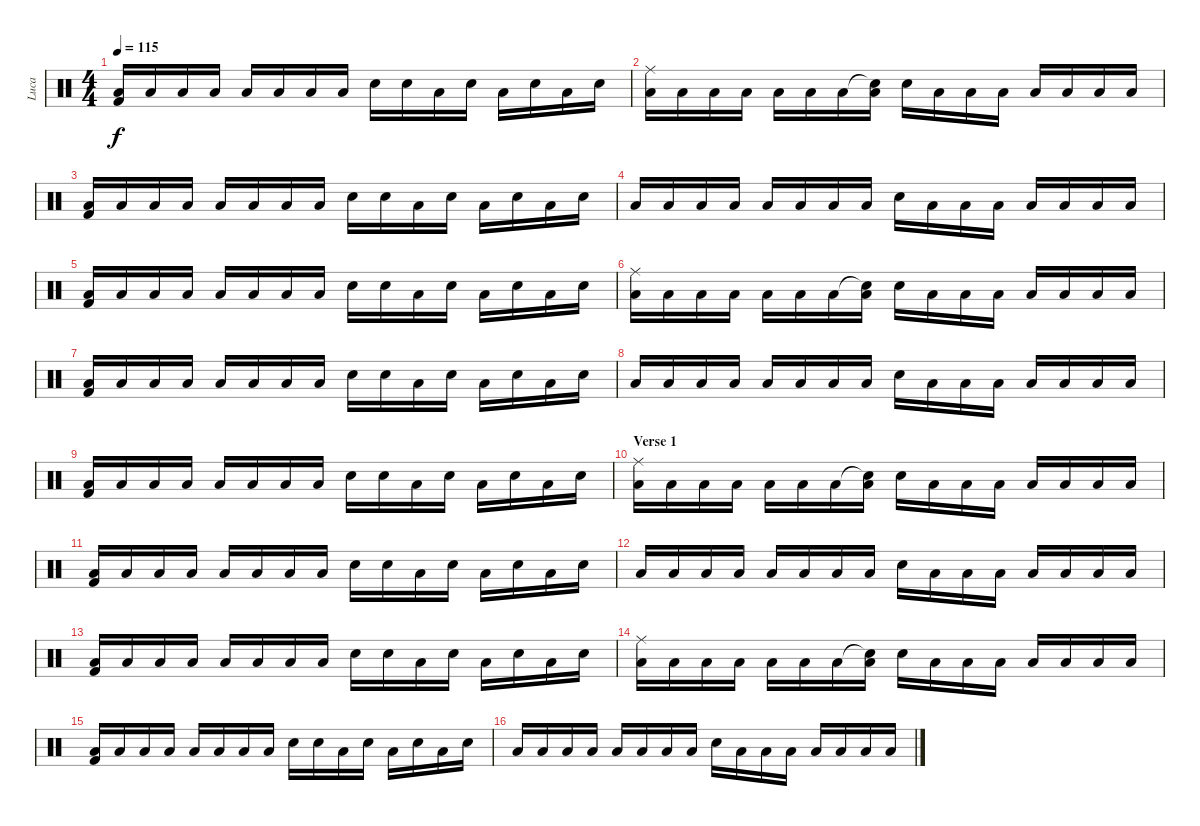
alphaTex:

\track ("Luca" "Luca") {instrument percussion}
\staff {score}
\articulation defaults
\ts (4 4)
\tempo 115
\clef neutral
\ks c
("Low Floor Tom (hit)" "Kick (hit) 2").16{dy f} "Low Floor Tom (hit)".16 "Low Floor Tom (hit)".16 "Low Floor Tom (hit)".16 "Low Floor Tom (hit)".16 "Low Floor Tom (hit)".16 "Low Floor Tom (hit)".16 "Low Floor Tom (hit)".16 "Snare (hit) 2".16 "Snare (hit) 2".16 "Low Floor Tom (hit)".16 "Snare (hit) 2".16 "Low Floor Tom (hit)".16 "Snare (hit) 2".16 "Low Floor Tom (hit)".16 "Snare (hit) 2".16 |
("Ride (middle)" "Low Floor Tom (hit)").16 "Low Floor Tom (hit)".16 "Low Floor Tom (hit)".16 "Low Floor Tom (hit)".16 "Low Floor Tom (hit)".16 "Low Floor Tom (hit)".16 "Low Floor Tom (hit)".16 ("Snare (hit)"{t} "Low Floor Tom (hit)").16 "Snare (hit) 2".16 "Low Floor Tom (hit)".16 "Low Floor Tom (hit)".16 "Low Floor Tom (hit)".16 "Low Floor Tom (hit)".16 "Low Floor Tom (hit)".16 "Low Floor Tom (hit)".16 "Low Floor Tom (hit)".16 |
("Low Floor Tom (hit)" "Kick (hit) 2").16 "Low Floor Tom (hit)".16 "Low Floor Tom (hit)".16 "Low Floor Tom (hit)".16 "Low Floor Tom (hit)".16 "Low Floor Tom (hit)".16 "Low Floor Tom (hit)".16 "Low Floor Tom (hit)".16 "Snare (hit) 2".16 "Snare (hit) 2".16 "Low Floor Tom (hit)".16 "Snare (hit) 2".16 "Low Floor Tom (hit)".16 "Snare (hit) 2".16 "Low Floor Tom (hit)".16 "Snare (hit) 2".16 |
"Low Floor Tom (hit)".16 "Low Floor Tom (hit)".16 "Low Floor Tom (hit)".16 "Low Floor Tom (hit)".16 "Low Floor Tom (hit)".16 "Low Floor Tom (hit)".16 "Low Floor Tom (hit)".16 "Low Floor Tom (hit)".16 "Snare (hit) 2".16 "Low Floor Tom (hit)".16 "Low Floor Tom (hit)".16 "Low Floor Tom (hit)".16 "Low Floor Tom (hit)".16 "Low Floor Tom (hit)".16 "Low Floor Tom (hit)".16 "Low Floor Tom (hit)".16 |
("Low Floor Tom (hit)" "Kick (hit) 2").16 "Low Floor Tom (hit)".16 "Low Floor Tom (hit)".16 "Low Floor Tom (hit)".16 "Low Floor Tom (hit)".16 "Low Floor Tom (hit)".16 "Low Floor Tom (hit)".16 "Low Floor Tom (hit)".16 "Snare (hit) 2".16 "Snare (hit) 2".16 "Low Floor Tom (hit)".16 "Snare (hit) 2".16 "Low Floor Tom (hit)".16 "Snare (hit) 2".16 "Low Floor Tom (hit)".16 "Snare (hit) 2".16 |
("Ride (middle)" "Low Floor Tom (hit)").16 "Low Floor Tom (hit)".16 "Low Floor Tom (hit)".16 "Low Floor Tom (hit)".16 "Low Floor Tom (hit)".16 "Low Floor Tom (hit)".16 "Low Floor Tom (hit)".16 ("Snare (hit)"{t} "Low Floor Tom (hit)").16 "Snare (hit) 2".16 "Low Floor Tom (hit)".16 "Low Floor Tom (hit)".16 "Low Floor Tom (hit)".16 "Low Floor Tom (hit)".16 "Low Floor Tom (hit)".16 "Low Floor Tom (hit)".16 "Low Floor Tom (hit)".16 |
("Low Floor Tom (hit)" "Kick (hit) 2").16 "Low Floor Tom (hit)".16 "Low Floor Tom (hit)".16 "Low Floor Tom (hit)".16 "Low Floor Tom (hit)".16 "Low Floor Tom (hit)".16 "Low Floor Tom (hit)".16 "Low Floor Tom (hit)".16 "Snare (hit) 2".16 "Snare (hit) 2".16 "Low Floor Tom (hit)".16 "Snare (hit) 2".16 "Low Floor Tom (hit)".16 "Snare (hit) 2".16 "Low Floor Tom (hit)".16 "Snare (hit) 2".16 |
"Low Floor Tom (hit)".16 "Low Floor Tom (hit)".16 "Low Floor Tom (hit)".16 "Low Floor Tom (hit)".16 "Low Floor Tom (hit)".16 "Low Floor Tom (hit)".16 "Low Floor Tom (hit)".16 "Low Floor Tom (hit)".16 "Snare (hit) 2".16 "Low Floor Tom (hit)".16 "Low Floor Tom (hit)".16 "Low Floor Tom (hit)".16 "Low Floor Tom (hit)".16 "Low Floor Tom (hit)".16 "Low Floor Tom (hit)".16 "Low Floor Tom (hit)".16 |
("Low Floor Tom (hit)" "Kick (hit) 2").16 "Low Floor Tom (hit)".16 "Low Floor Tom (hit)".16 "Low Floor Tom (hit)".16 "Low Floor Tom (hit)".16 "Low Floor Tom (hit)".16 "Low Floor Tom (hit)".16 "Low Floor Tom (hit)".16 "Snare (hit) 2".16 "Snare (hit) 2".16 "Low Floor Tom (hit)".16 "Snare (hit) 2".16 "Low Floor Tom (hit)".16 "Snare (hit) 2".16 "Low Floor Tom (hit)".16 "Snare (hit) 2".16 |
\section ("" "Verse 1")
("Ride (middle)" "Low Floor Tom (hit)").16 "Low Floor Tom (hit)".16 "Low Floor Tom (hit)".16 "Low Floor Tom (hit)".16 "Low Floor Tom (hit)".16 "Low Floor Tom (hit)".16 "Low Floor Tom (hit)".16 ("Snare (hit)"{t} "Low Floor Tom (hit)").16 "Snare (hit) 2".16 "Low Floor Tom (hit)".16 "Low Floor Tom (hit)".16 "Low Floor Tom (hit)".16 "Low Floor Tom (hit)".16 "Low Floor Tom (hit)".16 "Low Floor Tom (hit)".16 "Low Floor Tom (hit)".16 |
("Low Floor Tom (hit)" "Kick (hit) 2").16 "Low Floor Tom (hit)".16 "Low Floor Tom (hit)".16 "Low Floor Tom (hit)".16 "Low Floor Tom (hit)".16 "Low Floor Tom (hit)".16 "Low Floor Tom (hit)".16 "Low Floor Tom (hit)".16 "Snare (hit) 2".16 "Snare (hit) 2".16 "Low Floor Tom (hit)".16 "Snare (hit) 2".16 "Low Floor Tom (hit)".16 "Snare (hit) 2".16 "Low Floor Tom (hit)".16 "Snare (hit) 2".16 |
"Low Floor Tom (hit)".16 "Low Floor Tom (hit)".16 "Low Floor Tom (hit)".16 "Low Floor Tom (hit)".16 "Low Floor Tom (hit)".16 "Low Floor Tom (hit)".16 "Low Floor Tom (hit)".16 "Low Floor Tom (hit)".16 "Snare (hit) 2".16 "Low Floor Tom (hit)".16 "Low Floor Tom (hit)".16 "Low Floor Tom (hit)".16 "Low Floor Tom (hit)".16 "Low Floor Tom (hit)".16 "Low Floor Tom (hit)".16 "Low Floor Tom (hit)".16 |
("Low Floor Tom (hit)" "Kick (hit) 2").16 "Low Floor Tom (hit)".16 "Low Floor Tom (hit)".16 "Low Floor Tom (hit)".16 "Low Floor Tom (hit)".16 "Low Floor Tom (hit)".16 "Low Floor Tom (hit)".16 "Low Floor Tom (hit)".16 "Snare (hit) 2".16 "Snare (hit) 2".16 "Low Floor Tom (hit)".16 "Snare (hit) 2".16 "Low Floor Tom (hit)".16 "Snare (hit) 2".16 "Low Floor Tom (hit)".16 "Snare (hit) 2".16 |
("Ride (middle)" "Low Floor Tom (hit)").16 "Low Floor Tom (hit)".16 "Low Floor Tom (hit)".16 "Low Floor Tom (hit)".16 "Low Floor Tom (hit)".16 "Low Floor Tom (hit)".16 "Low Floor Tom (hit)".16 ("Snare (hit)"{t} "Low Floor Tom (hit)").16 "Snare (hit) 2".16 "Low Floor Tom (hit)".16 "Low Floor Tom (hit)".16 "Low Floor Tom (hit)".16 "Low Floor Tom (hit)".16 "Low Floor Tom (hit)".16 "Low Floor Tom (hit)".16 "Low Floor Tom (hit)".16 |
("Low Floor Tom (hit)" "Kick (hit) 2").16 "Low Floor Tom (hit)".16 "Low Floor Tom (hit)".16 "Low Floor Tom (hit)".16 "Low Floor Tom (hit)".16 "Low Floor Tom (hit)".16 "Low Floor Tom (hit)".16 "Low Floor Tom (hit)".16 "Snare (hit) 2".16 "Snare (hit) 2".16 "Low Floor Tom (hit)".16 "Snare (hit) 2".16 "Low Floor Tom (hit)".16 "Snare (hit) 2".16 "Low Floor Tom (hit)".16 "Snare (hit) 2".16 |
"Low Floor Tom (hit)".16 "Low Floor Tom (hit)".16 "Low Floor Tom (hit)".16 "Low Floor Tom (hit)".16 "Low Floor Tom (hit)".16 "Low Floor Tom (hit)".16 "Low Floor Tom (hit)".16 "Low Floor Tom (hit)".16 "Snare (hit) 2".16 "Low Floor Tom (hit)".16 "Low Floor Tom (hit)".16 "Low Floor Tom (hit)".16 "Low Floor Tom (hit)".16 "Low Floor Tom (hit)".16 "Low Floor Tom (hit)".16 "Low Floor Tom (hit)".16
